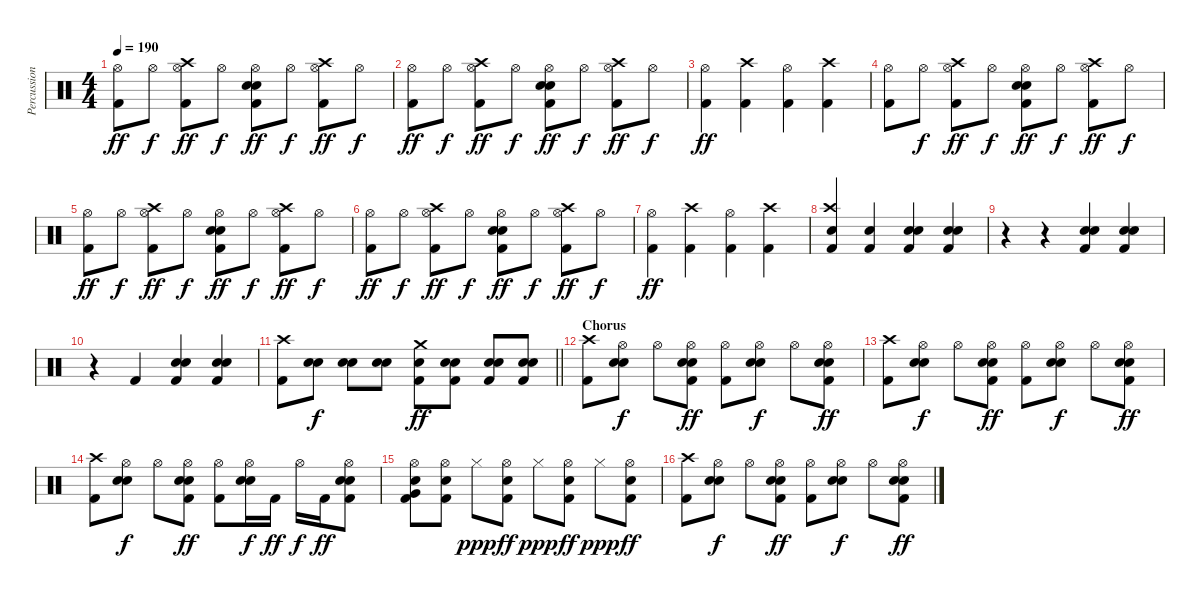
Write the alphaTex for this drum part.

\track ("Percussion" "Percussion") {instrument percussion}
\staff {score}
\articulation defaults
\ts (4 4)
\tempo 190
\clef neutral
\ks c
("Hi-Hat (open)" "Kick (hit) 2").8{dy ff} "Hi-Hat (open)".8{dy f} ("Crash high (hit)" "Hi-Hat (open)" "Kick (hit) 2").8{dy ff} "Hi-Hat (open)".8{dy f} ("Hi-Hat (open)" "Electric Snare (hit)" "Snare (hit) 2" "Kick (hit) 2").8{dy ff} "Hi-Hat (open)".8{dy f} ("Crash high (hit)" "Hi-Hat (open)" "Kick (hit) 2").8{dy ff} "Hi-Hat (open)".8{dy f} |
("Hi-Hat (open)" "Kick (hit) 2").8{dy ff} "Hi-Hat (open)".8{dy f} ("Crash high (hit)" "Hi-Hat (open)" "Kick (hit) 2").8{dy ff} "Hi-Hat (open)".8{dy f} ("Hi-Hat (open)" "Electric Snare (hit)" "Snare (hit) 2" "Kick (hit) 2").8{dy ff} "Hi-Hat (open)".8{dy f} ("Crash high (hit)" "Hi-Hat (open)" "Kick (hit) 2").8{dy ff} "Hi-Hat (open)".8{dy f} |
("Hi-Hat (open)" "Kick (hit) 2").4{dy ff} ("Crash high (hit)" "Kick (hit) 2").4 ("Hi-Hat (open)" "Kick (hit) 2").4 ("Crash high (hit)" "Kick (hit) 2").4 |
("Hi-Hat (open)" "Kick (hit) 2").8 "Hi-Hat (open)".8{dy f} ("Crash high (hit)" "Hi-Hat (open)" "Kick (hit) 2").8{dy ff} "Hi-Hat (open)".8{dy f} ("Hi-Hat (open)" "Electric Snare (hit)" "Snare (hit) 2" "Kick (hit) 2").8{dy ff} "Hi-Hat (open)".8{dy f} ("Crash high (hit)" "Hi-Hat (open)" "Kick (hit) 2").8{dy ff} "Hi-Hat (open)".8{dy f} |
("Hi-Hat (open)" "Kick (hit) 2").8{dy ff} "Hi-Hat (open)".8{dy f} ("Crash high (hit)" "Hi-Hat (open)" "Kick (hit) 2").8{dy ff} "Hi-Hat (open)".8{dy f} ("Hi-Hat (open)" "Electric Snare (hit)" "Snare (hit) 2" "Kick (hit) 2").8{dy ff} "Hi-Hat (open)".8{dy f} ("Crash high (hit)" "Hi-Hat (open)" "Kick (hit) 2").8{dy ff} "Hi-Hat (open)".8{dy f} |
("Hi-Hat (open)" "Kick (hit) 2").8{dy ff} "Hi-Hat (open)".8{dy f} ("Crash high (hit)" "Hi-Hat (open)" "Kick (hit) 2").8{dy ff} "Hi-Hat (open)".8{dy f} ("Hi-Hat (open)" "Electric Snare (hit)" "Snare (hit) 2" "Kick (hit) 2").8{dy ff} "Hi-Hat (open)".8{dy f} ("Crash high (hit)" "Hi-Hat (open)" "Kick (hit) 2").8{dy ff} "Hi-Hat (open)".8{dy f} |
("Hi-Hat (open)" "Kick (hit) 2").4{dy ff} ("Crash high (hit)" "Kick (hit) 2").4 ("Hi-Hat (open)" "Kick (hit) 2").4 ("Crash high (hit)" "Kick (hit) 2").4 |
("Crash high (hit)" "Snare (hit) 2" "Kick (hit) 2").4 ("Snare (hit) 2" "Kick (hit) 2").4 ("Electric Snare (hit)" "Snare (hit) 2" "Kick (hit) 2").4 ("Electric Snare (hit)" "Snare (hit) 2" "Kick (hit) 2").4 |
r.4 r.4 ("Electric Snare (hit)" "Snare (hit) 2" "Kick (hit) 2").4 ("Electric Snare (hit)" "Snare (hit) 2" "Kick (hit) 2").4 |
r.4 "Kick (hit) 2".4 ("Electric Snare (hit)" "Snare (hit) 2" "Kick (hit) 2").4 ("Electric Snare (hit)" "Snare (hit) 2" "Kick (hit) 2").4 |
\barLineRight lightlight
("Crash high (hit)" "Kick (hit) 2").8 ("Electric Snare (hit)" "Snare (hit) 2").8{dy f} ("Electric Snare (hit)" "Snare (hit) 2").8 ("Electric Snare (hit)" "Snare (hit) 2").8 ("Crash medium (hit)" "Snare (hit) 2" "Kick (hit) 2").8{dy ff} ("Electric Snare (hit)" "Snare (hit) 2" "Kick (hit) 2").8 ("Electric Snare (hit)" "Snare (hit) 2" "Kick (hit) 2").8 ("Electric Snare (hit)" "Snare (hit) 2" "Kick (hit) 2").8 |
\section ("" "Chorus")
("Crash high (hit)" "Kick (hit) 2").8 ("Hi-Hat (open)" "Electric Snare (hit)" "Snare (hit) 2").8{dy f} "Hi-Hat (open)".8 ("Hi-Hat (open)" "Electric Snare (hit)" "Snare (hit) 2" "Kick (hit) 2").8{dy ff} ("Hi-Hat (open)" "Kick (hit) 2").8 ("Hi-Hat (open)" "Electric Snare (hit)" "Snare (hit) 2").8{dy f} "Hi-Hat (open)".8 ("Hi-Hat (open)" "Electric Snare (hit)" "Snare (hit) 2" "Kick (hit) 2").8{dy ff} |
("Crash high (hit)" "Kick (hit) 2").8 ("Hi-Hat (open)" "Electric Snare (hit)" "Snare (hit) 2").8{dy f} "Hi-Hat (open)".8 ("Hi-Hat (open)" "Electric Snare (hit)" "Snare (hit) 2" "Kick (hit) 2").8{dy ff} ("Hi-Hat (open)" "Kick (hit) 2").8 ("Hi-Hat (open)" "Electric Snare (hit)" "Snare (hit) 2").8{dy f} "Hi-Hat (open)".8 ("Hi-Hat (open)" "Electric Snare (hit)" "Snare (hit) 2" "Kick (hit) 2").8{dy ff} |
("Crash high (hit)" "Kick (hit) 2").8 ("Hi-Hat (open)" "Electric Snare (hit)" "Snare (hit) 2").8{dy f} "Hi-Hat (open)".8 ("Hi-Hat (open)" "Electric Snare (hit)" "Snare (hit) 2" "Kick (hit) 2").8{dy ff} ("Hi-Hat (open)" "Kick (hit) 2").8 ("Hi-Hat (open)" "Electric Snare (hit)" "Snare (hit) 2").16{dy f} "Kick (hit) 2".16{dy ff} "Hi-Hat (open)".16{dy f} "Kick (hit) 2".16{dy ff} ("Hi-Hat (open)" "Electric Snare (hit)" "Snare (hit) 2" "Kick (hit) 2").8 |
("Hi-Hat (open)" "Electric Snare (hit)" "Very Low Tom (hit)" "Kick (hit) 2").8 ("Hi-Hat (open)" "Snare (hit) 2" "Kick (hit) 2").8 "Hi-Hat (closed)".8{dy ppp} ("Hi-Hat (open)" "Snare (hit) 2" "Kick (hit) 2").8{dy ff} "Hi-Hat (closed)".8{dy ppp} ("Hi-Hat (open)" "Snare (hit) 2" "Kick (hit) 2").8{dy ff} "Hi-Hat (closed)".8{dy ppp} ("Hi-Hat (open)" "Snare (hit) 2" "Kick (hit) 2").8{dy ff} |
("Crash high (hit)" "Kick (hit) 2").8 ("Hi-Hat (open)" "Electric Snare (hit)" "Snare (hit) 2").8{dy f} "Hi-Hat (open)".8 ("Hi-Hat (open)" "Electric Snare (hit)" "Snare (hit) 2" "Kick (hit) 2").8{dy ff} ("Hi-Hat (open)" "Kick (hit) 2").8 ("Hi-Hat (open)" "Electric Snare (hit)" "Snare (hit) 2").8{dy f} "Hi-Hat (open)".8 ("Hi-Hat (open)" "Electric Snare (hit)" "Snare (hit) 2" "Kick (hit) 2").8{dy ff}
